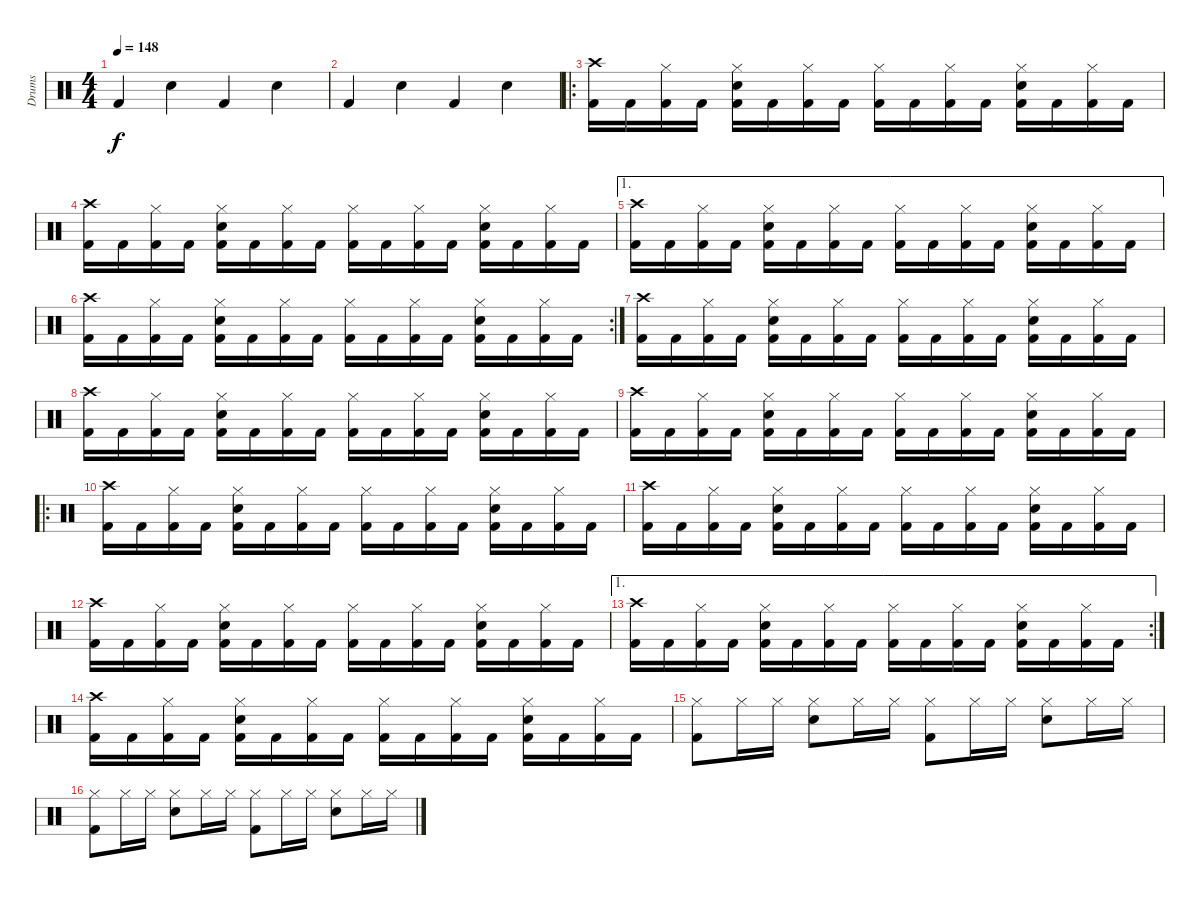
\track ("Drums" "Drums") {instrument percussion}
\staff {score}
\articulation defaults
\ts (4 4)
\tempo 148
\clef neutral
\ks c "Kick (hit) 2".4{dy f} "Snare (hit) 2".4 "Kick (hit) 2".4 "Snare (hit) 2".4
|
"Kick (hit) 2".4 "Snare (hit) 2".4 "Kick (hit) 2".4 "Snare (hit) 2".4 |
\ro
("Crash high (hit)" "Kick (hit) 2").16 "Kick (hit) 2".16 ("Hi-Hat (closed)" "Kick (hit) 2").16 "Kick (hit) 2".16 ("Hi-Hat (closed)" "Snare (hit) 2" "Kick (hit) 2").16 "Kick (hit) 2".16 ("Hi-Hat (closed)" "Kick (hit) 2").16 "Kick (hit) 2".16 ("Hi-Hat (closed)" "Kick (hit) 2").16 "Kick (hit) 2".16 ("Hi-Hat (closed)" "Kick (hit) 2").16 "Kick (hit) 2".16 ("Hi-Hat (closed)" "Snare (hit) 2" "Kick (hit) 2").16 "Kick (hit) 2".16 ("Hi-Hat (closed)" "Kick (hit) 2").16 "Kick (hit) 2".16 |
("Crash high (hit)" "Kick (hit) 2").16 "Kick (hit) 2".16 ("Hi-Hat (closed)" "Kick (hit) 2").16 "Kick (hit) 2".16 ("Hi-Hat (closed)" "Snare (hit) 2" "Kick (hit) 2").16 "Kick (hit) 2".16 ("Hi-Hat (closed)" "Kick (hit) 2").16 "Kick (hit) 2".16 ("Hi-Hat (closed)" "Kick (hit) 2").16 "Kick (hit) 2".16 ("Hi-Hat (closed)" "Kick (hit) 2").16 "Kick (hit) 2".16 ("Hi-Hat (closed)" "Snare (hit) 2" "Kick (hit) 2").16 "Kick (hit) 2".16 ("Hi-Hat (closed)" "Kick (hit) 2").16 "Kick (hit) 2".16 |
\ae 1
("Crash high (hit)" "Kick (hit) 2").16 "Kick (hit) 2".16 ("Hi-Hat (closed)" "Kick (hit) 2").16 "Kick (hit) 2".16 ("Hi-Hat (closed)" "Snare (hit) 2" "Kick (hit) 2").16 "Kick (hit) 2".16 ("Hi-Hat (closed)" "Kick (hit) 2").16 "Kick (hit) 2".16 ("Hi-Hat (closed)" "Kick (hit) 2").16 "Kick (hit) 2".16 ("Hi-Hat (closed)" "Kick (hit) 2").16 "Kick (hit) 2".16 ("Hi-Hat (closed)" "Snare (hit) 2" "Kick (hit) 2").16 "Kick (hit) 2".16 ("Hi-Hat (closed)" "Kick (hit) 2").16 "Kick (hit) 2".16 |
\rc 2
("Crash high (hit)" "Kick (hit) 2").16 "Kick (hit) 2".16 ("Hi-Hat (closed)" "Kick (hit) 2").16 "Kick (hit) 2".16 ("Hi-Hat (closed)" "Snare (hit) 2" "Kick (hit) 2").16 "Kick (hit) 2".16 ("Hi-Hat (closed)" "Kick (hit) 2").16 "Kick (hit) 2".16 ("Hi-Hat (closed)" "Kick (hit) 2").16 "Kick (hit) 2".16 ("Hi-Hat (closed)" "Kick (hit) 2").16 "Kick (hit) 2".16 ("Hi-Hat (closed)" "Snare (hit) 2" "Kick (hit) 2").16 "Kick (hit) 2".16 ("Hi-Hat (closed)" "Kick (hit) 2").16 "Kick (hit) 2".16 |
("Crash high (hit)" "Kick (hit) 2").16 "Kick (hit) 2".16 ("Hi-Hat (closed)" "Kick (hit) 2").16 "Kick (hit) 2".16 ("Hi-Hat (closed)" "Snare (hit) 2" "Kick (hit) 2").16 "Kick (hit) 2".16 ("Hi-Hat (closed)" "Kick (hit) 2").16 "Kick (hit) 2".16 ("Hi-Hat (closed)" "Kick (hit) 2").16 "Kick (hit) 2".16 ("Hi-Hat (closed)" "Kick (hit) 2").16 "Kick (hit) 2".16 ("Hi-Hat (closed)" "Snare (hit) 2" "Kick (hit) 2").16 "Kick (hit) 2".16 ("Hi-Hat (closed)" "Kick (hit) 2").16 "Kick (hit) 2".16 |
("Crash high (hit)" "Kick (hit) 2").16 "Kick (hit) 2".16 ("Hi-Hat (closed)" "Kick (hit) 2").16 "Kick (hit) 2".16 ("Hi-Hat (closed)" "Snare (hit) 2" "Kick (hit) 2").16 "Kick (hit) 2".16 ("Hi-Hat (closed)" "Kick (hit) 2").16 "Kick (hit) 2".16 ("Hi-Hat (closed)" "Kick (hit) 2").16 "Kick (hit) 2".16 ("Hi-Hat (closed)" "Kick (hit) 2").16 "Kick (hit) 2".16 ("Hi-Hat (closed)" "Snare (hit) 2" "Kick (hit) 2").16 "Kick (hit) 2".16 ("Hi-Hat (closed)" "Kick (hit) 2").16 "Kick (hit) 2".16 |
("Crash high (hit)" "Kick (hit) 2").16 "Kick (hit) 2".16 ("Hi-Hat (closed)" "Kick (hit) 2").16 "Kick (hit) 2".16 ("Hi-Hat (closed)" "Snare (hit) 2" "Kick (hit) 2").16 "Kick (hit) 2".16 ("Hi-Hat (closed)" "Kick (hit) 2").16 "Kick (hit) 2".16 ("Hi-Hat (closed)" "Kick (hit) 2").16 "Kick (hit) 2".16 ("Hi-Hat (closed)" "Kick (hit) 2").16 "Kick (hit) 2".16 ("Hi-Hat (closed)" "Snare (hit) 2" "Kick (hit) 2").16 "Kick (hit) 2".16 ("Hi-Hat (closed)" "Kick (hit) 2").16 "Kick (hit) 2".16 |
\ro
("Crash high (hit)" "Kick (hit) 2").16 "Kick (hit) 2".16 ("Hi-Hat (closed)" "Kick (hit) 2").16 "Kick (hit) 2".16 ("Hi-Hat (closed)" "Snare (hit) 2" "Kick (hit) 2").16 "Kick (hit) 2".16 ("Hi-Hat (closed)" "Kick (hit) 2").16 "Kick (hit) 2".16 ("Hi-Hat (closed)" "Kick (hit) 2").16 "Kick (hit) 2".16 ("Hi-Hat (closed)" "Kick (hit) 2").16 "Kick (hit) 2".16 ("Hi-Hat (closed)" "Snare (hit) 2" "Kick (hit) 2").16 "Kick (hit) 2".16 ("Hi-Hat (closed)" "Kick (hit) 2").16 "Kick (hit) 2".16 |
("Crash high (hit)" "Kick (hit) 2").16 "Kick (hit) 2".16 ("Hi-Hat (closed)" "Kick (hit) 2").16 "Kick (hit) 2".16 ("Hi-Hat (closed)" "Snare (hit) 2" "Kick (hit) 2").16 "Kick (hit) 2".16 ("Hi-Hat (closed)" "Kick (hit) 2").16 "Kick (hit) 2".16 ("Hi-Hat (closed)" "Kick (hit) 2").16 "Kick (hit) 2".16 ("Hi-Hat (closed)" "Kick (hit) 2").16 "Kick (hit) 2".16 ("Hi-Hat (closed)" "Snare (hit) 2" "Kick (hit) 2").16 "Kick (hit) 2".16 ("Hi-Hat (closed)" "Kick (hit) 2").16 "Kick (hit) 2".16 |
("Crash high (hit)" "Kick (hit) 2").16 "Kick (hit) 2".16 ("Hi-Hat (closed)" "Kick (hit) 2").16 "Kick (hit) 2".16 ("Hi-Hat (closed)" "Snare (hit) 2" "Kick (hit) 2").16 "Kick (hit) 2".16 ("Hi-Hat (closed)" "Kick (hit) 2").16 "Kick (hit) 2".16 ("Hi-Hat (closed)" "Kick (hit) 2").16 "Kick (hit) 2".16 ("Hi-Hat (closed)" "Kick (hit) 2").16 "Kick (hit) 2".16 ("Hi-Hat (closed)" "Snare (hit) 2" "Kick (hit) 2").16 "Kick (hit) 2".16 ("Hi-Hat (closed)" "Kick (hit) 2").16 "Kick (hit) 2".16 |
\ae 1
\rc 2
("Crash high (hit)" "Kick (hit) 2").16 "Kick (hit) 2".16 ("Hi-Hat (closed)" "Kick (hit) 2").16 "Kick (hit) 2".16 ("Hi-Hat (closed)" "Snare (hit) 2" "Kick (hit) 2").16 "Kick (hit) 2".16 ("Hi-Hat (closed)" "Kick (hit) 2").16 "Kick (hit) 2".16 ("Hi-Hat (closed)" "Kick (hit) 2").16 "Kick (hit) 2".16 ("Hi-Hat (closed)" "Kick (hit) 2").16 "Kick (hit) 2".16 ("Hi-Hat (closed)" "Snare (hit) 2" "Kick (hit) 2").16 "Kick (hit) 2".16 ("Hi-Hat (closed)" "Kick (hit) 2").16 "Kick (hit) 2".16 |
("Crash high (hit)" "Kick (hit) 2").16 "Kick (hit) 2".16 ("Hi-Hat (closed)" "Kick (hit) 2").16 "Kick (hit) 2".16 ("Hi-Hat (closed)" "Snare (hit) 2" "Kick (hit) 2").16 "Kick (hit) 2".16 ("Hi-Hat (closed)" "Kick (hit) 2").16 "Kick (hit) 2".16 ("Hi-Hat (closed)" "Kick (hit) 2").16 "Kick (hit) 2".16 ("Hi-Hat (closed)" "Kick (hit) 2").16 "Kick (hit) 2".16 ("Hi-Hat (closed)" "Snare (hit) 2" "Kick (hit) 2").16 "Kick (hit) 2".16 ("Hi-Hat (closed)" "Kick (hit) 2").16 "Kick (hit) 2".16 |
("Kick (hit) 2" "Hi-Hat (closed)").8 "Hi-Hat (closed)".16 "Hi-Hat (closed)".16 ("Snare (hit) 2" "Hi-Hat (closed)").8 "Hi-Hat (closed)".16 "Hi-Hat (closed)".16 ("Kick (hit) 2" "Hi-Hat (closed)").8 "Hi-Hat (closed)".16 "Hi-Hat (closed)".16 ("Snare (hit) 2" "Hi-Hat (closed)").8 "Hi-Hat (closed)".16 "Hi-Hat (closed)".16 |
("Kick (hit) 2" "Hi-Hat (closed)").8 "Hi-Hat (closed)".16 "Hi-Hat (closed)".16 ("Snare (hit) 2" "Hi-Hat (closed)").8 "Hi-Hat (closed)".16 "Hi-Hat (closed)".16 ("Kick (hit) 2" "Hi-Hat (closed)").8 "Hi-Hat (closed)".16 "Hi-Hat (closed)".16 ("Snare (hit) 2" "Hi-Hat (closed)").8 "Hi-Hat (closed)".16 "Hi-Hat (closed)".16
